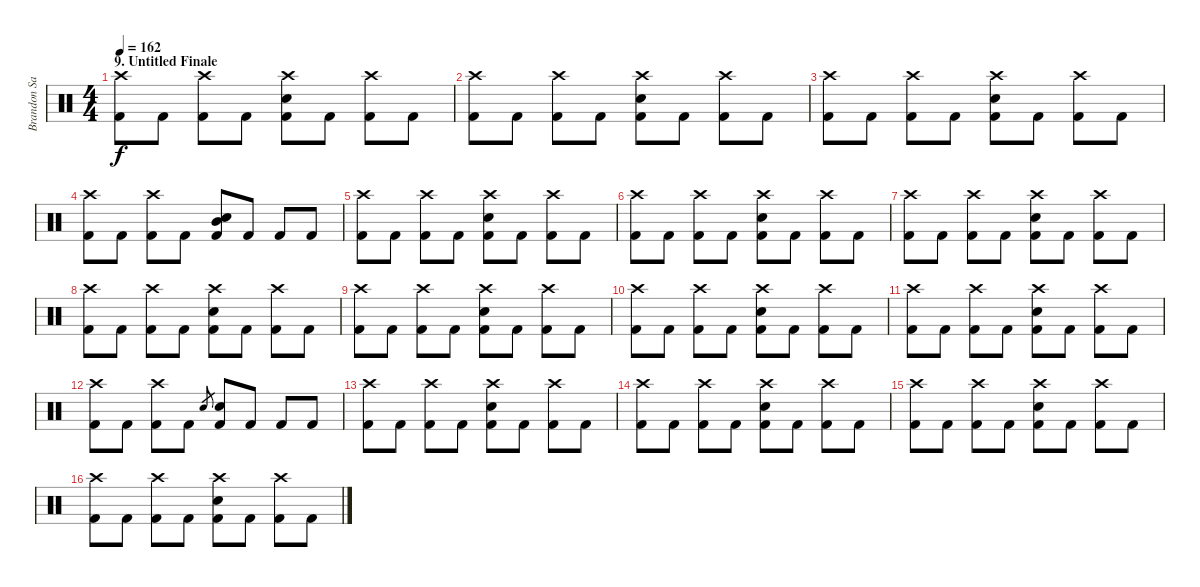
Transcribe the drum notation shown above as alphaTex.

\track ("Brandon Saller" "Brandon Sa") {instrument percussion}
\staff {score}
\articulation defaults
\ts (4 4)
\section ("" "9. Untitled Finale")
\tempo 162
\clef neutral
\ks c
("Crash high (hit)" "Kick (hit) 2").8{dy f volume 14} "Kick (hit) 2".8 ("Crash high (hit)" "Kick (hit) 2").8 "Kick (hit) 2".8 ("Crash high (hit)" "Electric Snare (hit)" "Kick (hit) 2").8 "Kick (hit) 2".8 ("Crash high (hit)" "Kick (hit) 2").8 "Kick (hit) 2".8 |
("Crash high (hit)" "Kick (hit) 2").8 "Kick (hit) 2".8 ("Crash high (hit)" "Kick (hit) 2").8 "Kick (hit) 2".8 ("Crash high (hit)" "Electric Snare (hit)" "Kick (hit) 2").8 "Kick (hit) 2".8 ("Crash high (hit)" "Kick (hit) 2").8 "Kick (hit) 2".8 |
("Crash high (hit)" "Kick (hit) 2").8 "Kick (hit) 2".8 ("Crash high (hit)" "Kick (hit) 2").8 "Kick (hit) 2".8 ("Crash high (hit)" "Electric Snare (hit)" "Kick (hit) 2").8 "Kick (hit) 2".8 ("Crash high (hit)" "Kick (hit) 2").8 "Kick (hit) 2".8 |
("Crash high (hit)" "Kick (hit) 2").8 "Kick (hit) 2".8 ("Crash high (hit)" "Kick (hit) 2").8 "Kick (hit) 2".8 ("Mid Tom (hit)" "Electric Snare (hit)" "Kick (hit) 2").8 "Kick (hit) 2".8 "Kick (hit) 2".8 "Kick (hit) 2".8 |
("Crash high (hit)" "Kick (hit) 2").8 "Kick (hit) 2".8 ("Crash high (hit)" "Kick (hit) 2").8 "Kick (hit) 2".8 ("Crash high (hit)" "Electric Snare (hit)" "Kick (hit) 2").8 "Kick (hit) 2".8 ("Crash high (hit)" "Kick (hit) 2").8 "Kick (hit) 2".8 |
("Crash high (hit)" "Kick (hit) 2").8 "Kick (hit) 2".8 ("Crash high (hit)" "Kick (hit) 2").8 "Kick (hit) 2".8 ("Crash high (hit)" "Electric Snare (hit)" "Kick (hit) 2").8 "Kick (hit) 2".8 ("Crash high (hit)" "Kick (hit) 2").8 "Kick (hit) 2".8 |
("Crash high (hit)" "Kick (hit) 2").8 "Kick (hit) 2".8 ("Crash high (hit)" "Kick (hit) 2").8 "Kick (hit) 2".8 ("Crash high (hit)" "Electric Snare (hit)" "Kick (hit) 2").8 "Kick (hit) 2".8 ("Crash high (hit)" "Kick (hit) 2").8 "Kick (hit) 2".8 |
("Crash high (hit)" "Kick (hit) 2").8 "Kick (hit) 2".8 ("Crash high (hit)" "Kick (hit) 2").8 "Kick (hit) 2".8 ("Crash high (hit)" "Electric Snare (hit)" "Kick (hit) 2").8 "Kick (hit) 2".8 ("Crash high (hit)" "Kick (hit) 2").8 "Kick (hit) 2".8 |
("Crash high (hit)" "Kick (hit) 2").8 "Kick (hit) 2".8 ("Crash high (hit)" "Kick (hit) 2").8 "Kick (hit) 2".8 ("Crash high (hit)" "Electric Snare (hit)" "Kick (hit) 2").8 "Kick (hit) 2".8 ("Crash high (hit)" "Kick (hit) 2").8 "Kick (hit) 2".8 |
("Crash high (hit)" "Kick (hit) 2").8 "Kick (hit) 2".8 ("Crash high (hit)" "Kick (hit) 2").8 "Kick (hit) 2".8 ("Crash high (hit)" "Electric Snare (hit)" "Kick (hit) 2").8 "Kick (hit) 2".8 ("Crash high (hit)" "Kick (hit) 2").8 "Kick (hit) 2".8 |
("Crash high (hit)" "Kick (hit) 2").8 "Kick (hit) 2".8 ("Crash high (hit)" "Kick (hit) 2").8 "Kick (hit) 2".8 ("Crash high (hit)" "Electric Snare (hit)" "Kick (hit) 2").8 "Kick (hit) 2".8 ("Crash high (hit)" "Kick (hit) 2").8 "Kick (hit) 2".8 |
("Crash high (hit)" "Kick (hit) 2").8 "Kick (hit) 2".8 ("Crash high (hit)" "Kick (hit) 2").8 "Kick (hit) 2".8 "Electric Snare (hit)".8{gr} ("Electric Snare (hit)" "Kick (hit) 2").8 "Kick (hit) 2".8 "Kick (hit) 2".8 "Kick (hit) 2".8 |
("Crash high (hit)" "Kick (hit) 2").8 "Kick (hit) 2".8 ("Crash high (hit)" "Kick (hit) 2").8 "Kick (hit) 2".8 ("Crash high (hit)" "Electric Snare (hit)" "Kick (hit) 2").8 "Kick (hit) 2".8 ("Crash high (hit)" "Kick (hit) 2").8 "Kick (hit) 2".8 |
("Crash high (hit)" "Kick (hit) 2").8 "Kick (hit) 2".8 ("Crash high (hit)" "Kick (hit) 2").8 "Kick (hit) 2".8 ("Crash high (hit)" "Electric Snare (hit)" "Kick (hit) 2").8 "Kick (hit) 2".8 ("Crash high (hit)" "Kick (hit) 2").8 "Kick (hit) 2".8 |
("Crash high (hit)" "Kick (hit) 2").8 "Kick (hit) 2".8 ("Crash high (hit)" "Kick (hit) 2").8 "Kick (hit) 2".8 ("Crash high (hit)" "Electric Snare (hit)" "Kick (hit) 2").8 "Kick (hit) 2".8 ("Crash high (hit)" "Kick (hit) 2").8 "Kick (hit) 2".8 |
("Crash high (hit)" "Kick (hit) 2").8 "Kick (hit) 2".8 ("Crash high (hit)" "Kick (hit) 2").8 "Kick (hit) 2".8 ("Crash high (hit)" "Electric Snare (hit)" "Kick (hit) 2").8 "Kick (hit) 2".8 ("Crash high (hit)" "Kick (hit) 2").8 "Kick (hit) 2".8
